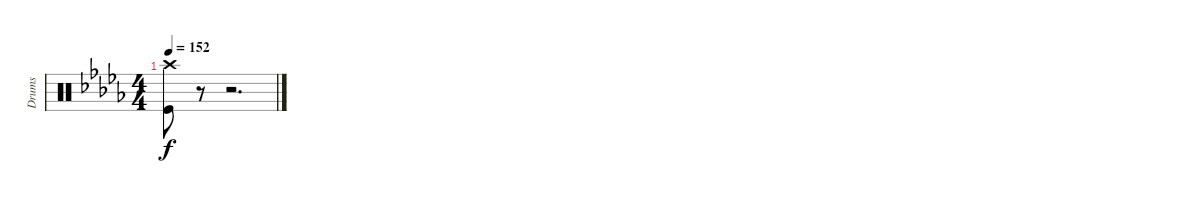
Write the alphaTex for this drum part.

\track ("Drums" "Drums") {instrument percussion}
\staff {score}
\articulation defaults
\ts (4 4)
\tempo 152
\clef neutral
\ks db
("Crash high (hit)" "Kick (hit)").8{dy f} r.8 r.2{d}
